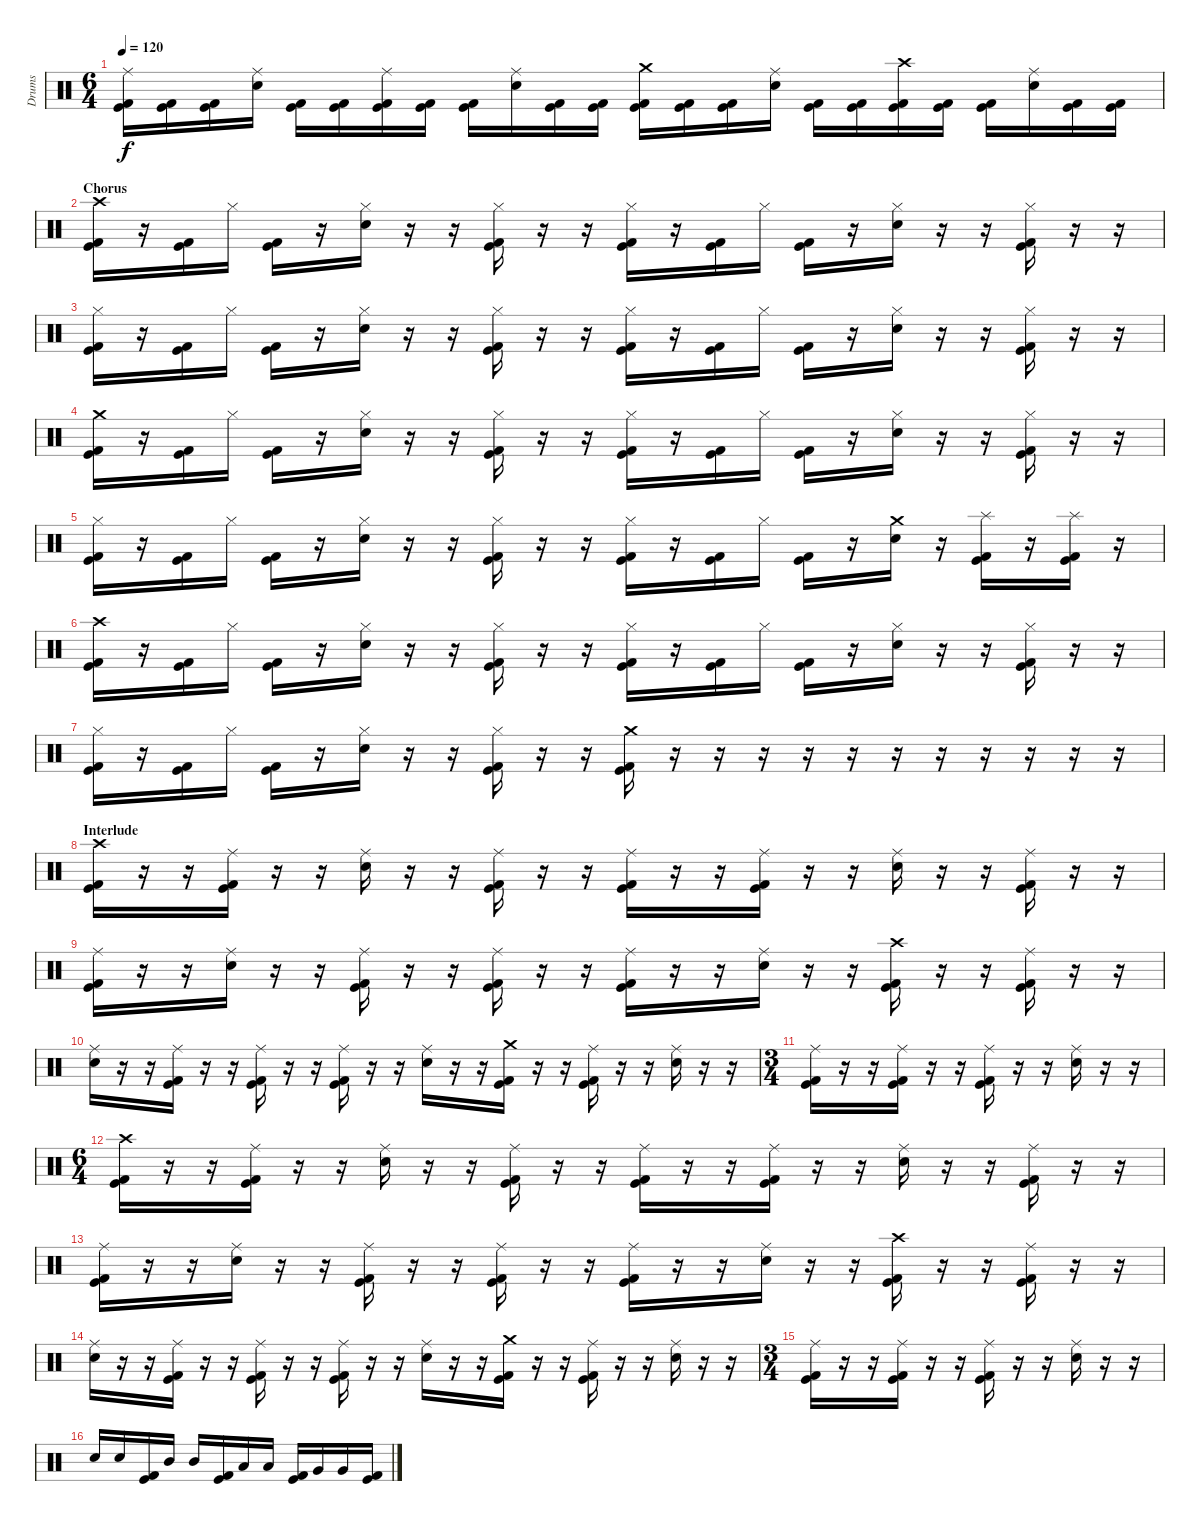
\track ("Drums" "Drums") {instrument percussion}
\staff {score}
\articulation defaults
\ts (6 4)
\tempo 120
\clef neutral
\ks c
("Ride (middle)" "Kick (hit) 2" "Kick (hit)").16{dy f} ("Kick (hit) 2" "Kick (hit)").16 ("Kick (hit) 2" "Kick (hit)").16 ("Ride (middle)" "Electric Snare (hit)").16 ("Kick (hit) 2" "Kick (hit)").16 ("Kick (hit) 2" "Kick (hit)").16 ("Ride (middle)" "Kick (hit) 2" "Kick (hit)").16 ("Kick (hit) 2" "Kick (hit)").16 ("Kick (hit) 2" "Kick (hit)").16 ("Ride (middle)" "Electric Snare (hit)").16 ("Kick (hit) 2" "Kick (hit)").16 ("Kick (hit) 2" "Kick (hit)").16 ("Crash medium (hit)" "Kick (hit) 2" "Kick (hit)").16 ("Kick (hit) 2" "Kick (hit)").16 ("Kick (hit) 2" "Kick (hit)").16 ("Ride (middle)" "Electric Snare (hit)").16 ("Kick (hit) 2" "Kick (hit)").16 ("Kick (hit) 2" "Kick (hit)").16 ("Crash high (hit)" "Kick (hit) 2" "Kick (hit)").16 ("Kick (hit) 2" "Kick (hit)").16 ("Kick (hit) 2" "Kick (hit)").16 ("Ride (middle)" "Electric Snare (hit)").16 ("Kick (hit) 2" "Kick (hit)").16 ("Kick (hit) 2" "Kick (hit)").16 |
\section ("" "Chorus")
("Crash high (hit)" "Kick (hit) 2" "Kick (hit)").16 r.16 ("Kick (hit) 2" "Kick (hit)").16 "Hi-Hat (closed)".16 ("Kick (hit) 2" "Kick (hit)").16 r.16 ("Hi-Hat (closed)" "Electric Snare (hit)").16 r.16 r.16 ("Hi-Hat (closed)" "Kick (hit) 2" "Kick (hit)").16 r.16 r.16 ("Hi-Hat (closed)" "Kick (hit) 2" "Kick (hit)").16 r.16 ("Kick (hit) 2" "Kick (hit)").16 "Hi-Hat (closed)".16 ("Kick (hit) 2" "Kick (hit)").16 r.16 ("Hi-Hat (closed)" "Electric Snare (hit)").16 r.16 r.16 ("Hi-Hat (closed)" "Kick (hit) 2" "Kick (hit)").16 r.16 r.16 |
("Hi-Hat (closed)" "Kick (hit) 2" "Kick (hit)").16 r.16 ("Kick (hit) 2" "Kick (hit)").16 "Hi-Hat (closed)".16 ("Kick (hit) 2" "Kick (hit)").16 r.16 ("Hi-Hat (closed)" "Electric Snare (hit)").16 r.16 r.16 ("Hi-Hat (closed)" "Kick (hit) 2" "Kick (hit)").16 r.16 r.16 ("Hi-Hat (closed)" "Kick (hit) 2" "Kick (hit)").16 r.16 ("Kick (hit) 2" "Kick (hit)").16 "Hi-Hat (closed)".16 ("Kick (hit) 2" "Kick (hit)").16 r.16 ("Hi-Hat (closed)" "Electric Snare (hit)").16 r.16 r.16 ("Hi-Hat (closed)" "Kick (hit) 2" "Kick (hit)").16 r.16 r.16 |
("Crash medium (hit)" "Kick (hit) 2" "Kick (hit)").16 r.16 ("Kick (hit) 2" "Kick (hit)").16 "Hi-Hat (closed)".16 ("Kick (hit) 2" "Kick (hit)").16 r.16 ("Hi-Hat (closed)" "Electric Snare (hit)").16 r.16 r.16 ("Hi-Hat (closed)" "Kick (hit) 2" "Kick (hit)").16 r.16 r.16 ("Hi-Hat (closed)" "Kick (hit) 2" "Kick (hit)").16 r.16 ("Kick (hit) 2" "Kick (hit)").16 "Hi-Hat (closed)".16 ("Kick (hit) 2" "Kick (hit)").16 r.16 ("Hi-Hat (closed)" "Electric Snare (hit)").16 r.16 r.16 ("Hi-Hat (closed)" "Kick (hit) 2" "Kick (hit)").16 r.16 r.16 |
("Hi-Hat (closed)" "Kick (hit) 2" "Kick (hit)").16 r.16 ("Kick (hit) 2" "Kick (hit)").16 "Hi-Hat (closed)".16 ("Kick (hit) 2" "Kick (hit)").16 r.16 ("Hi-Hat (closed)" "Electric Snare (hit)").16 r.16 r.16 ("Hi-Hat (closed)" "Kick (hit) 2" "Kick (hit)").16 r.16 r.16 ("Hi-Hat (closed)" "Kick (hit) 2" "Kick (hit)").16 r.16 ("Kick (hit) 2" "Kick (hit)").16 "Hi-Hat (closed)".16 ("Kick (hit) 2" "Kick (hit)").16 r.16 ("Crash medium (hit)" "Electric Snare (hit)").16 r.16 ("Splash (hit)" "Kick (hit) 2" "Kick (hit)").16 r.16 ("Splash (hit)" "Kick (hit) 2" "Kick (hit)").16 r.16 |
("Crash high (hit)" "Kick (hit) 2" "Kick (hit)").16 r.16 ("Kick (hit) 2" "Kick (hit)").16 "Hi-Hat (closed)".16 ("Kick (hit) 2" "Kick (hit)").16 r.16 ("Hi-Hat (closed)" "Electric Snare (hit)").16 r.16 r.16 ("Hi-Hat (closed)" "Kick (hit) 2" "Kick (hit)").16 r.16 r.16 ("Hi-Hat (closed)" "Kick (hit) 2" "Kick (hit)").16 r.16 ("Kick (hit) 2" "Kick (hit)").16 "Hi-Hat (closed)".16 ("Kick (hit) 2" "Kick (hit)").16 r.16 ("Hi-Hat (closed)" "Electric Snare (hit)").16 r.16 r.16 ("Hi-Hat (closed)" "Kick (hit) 2" "Kick (hit)").16 r.16 r.16 |
("Hi-Hat (closed)" "Kick (hit) 2" "Kick (hit)").16 r.16 ("Kick (hit) 2" "Kick (hit)").16 "Hi-Hat (closed)".16 ("Kick (hit) 2" "Kick (hit)").16 r.16 ("Hi-Hat (closed)" "Electric Snare (hit)").16 r.16 r.16 ("Hi-Hat (closed)" "Kick (hit) 2" "Kick (hit)").16 r.16 r.16 ("Crash medium (hit)" "Kick (hit) 2" "Kick (hit)").16 r.16 r.16 r.16 r.16 r.16 r.16 r.16 r.16 r.16 r.16 r.16 |
\section ("" "Interlude")
("Crash high (hit)" "Kick (hit)" "Kick (hit) 2").16 r.16 r.16 ("Ride (middle)" "Kick (hit)" "Kick (hit) 2").16 r.16 r.16 ("Ride (middle)" "Electric Snare (hit)").16 r.16 r.16 ("Ride (middle)" "Kick (hit)" "Kick (hit) 2").16 r.16 r.16 ("Ride (middle)" "Kick (hit)" "Kick (hit) 2").16 r.16 r.16 ("Ride (middle)" "Kick (hit)" "Kick (hit) 2").16 r.16 r.16 ("Ride (middle)" "Electric Snare (hit)").16 r.16 r.16 ("Ride (middle)" "Kick (hit)" "Kick (hit) 2").16 r.16 r.16 |
("Ride (middle)" "Kick (hit)" "Kick (hit) 2").16 r.16 r.16 ("Ride (middle)" "Electric Snare (hit)").16 r.16 r.16 ("Ride (middle)" "Kick (hit)" "Kick (hit) 2").16 r.16 r.16 ("Ride (middle)" "Kick (hit)" "Kick (hit) 2").16 r.16 r.16 ("Ride (middle)" "Kick (hit)" "Kick (hit) 2").16 r.16 r.16 ("Ride (middle)" "Electric Snare (hit)").16 r.16 r.16 ("Crash high (hit)" "Kick (hit)" "Kick (hit) 2").16 r.16 r.16 ("Ride (middle)" "Kick (hit)" "Kick (hit) 2").16 r.16 r.16 |
("Ride (middle)" "Electric Snare (hit)").16 r.16 r.16 ("Ride (middle)" "Kick (hit)" "Kick (hit) 2").16 r.16 r.16 ("Ride (middle)" "Kick (hit)" "Kick (hit) 2").16 r.16 r.16 ("Ride (middle)" "Kick (hit)" "Kick (hit) 2").16 r.16 r.16 ("Ride (middle)" "Electric Snare (hit)").16 r.16 r.16 ("Crash medium (hit)" "Kick (hit)" "Kick (hit) 2").16 r.16 r.16 ("Ride (middle)" "Kick (hit)" "Kick (hit) 2").16 r.16 r.16 ("Ride (middle)" "Electric Snare (hit)").16 r.16 r.16 |
\ts (3 4)
("Ride (middle)" "Kick (hit)" "Kick (hit) 2").16 r.16 r.16 ("Ride (middle)" "Kick (hit)" "Kick (hit) 2").16 r.16 r.16 ("Ride (middle)" "Kick (hit)" "Kick (hit) 2").16 r.16 r.16 ("Ride (middle)" "Electric Snare (hit)").16 r.16 r.16 |
\ts (6 4)
("Crash high (hit)" "Kick (hit)" "Kick (hit) 2").16 r.16 r.16 ("Ride (middle)" "Kick (hit)" "Kick (hit) 2").16 r.16 r.16 ("Ride (middle)" "Electric Snare (hit)").16 r.16 r.16 ("Ride (middle)" "Kick (hit)" "Kick (hit) 2").16 r.16 r.16 ("Ride (middle)" "Kick (hit)" "Kick (hit) 2").16 r.16 r.16 ("Ride (middle)" "Kick (hit)" "Kick (hit) 2").16 r.16 r.16 ("Ride (middle)" "Electric Snare (hit)").16 r.16 r.16 ("Ride (middle)" "Kick (hit)" "Kick (hit) 2").16 r.16 r.16 |
("Ride (middle)" "Kick (hit)" "Kick (hit) 2").16 r.16 r.16 ("Ride (middle)" "Electric Snare (hit)").16 r.16 r.16 ("Ride (middle)" "Kick (hit)" "Kick (hit) 2").16 r.16 r.16 ("Ride (middle)" "Kick (hit)" "Kick (hit) 2").16 r.16 r.16 ("Ride (middle)" "Kick (hit)" "Kick (hit) 2").16 r.16 r.16 ("Ride (middle)" "Electric Snare (hit)").16 r.16 r.16 ("Crash high (hit)" "Kick (hit)" "Kick (hit) 2").16 r.16 r.16 ("Ride (middle)" "Kick (hit)" "Kick (hit) 2").16 r.16 r.16 |
("Ride (middle)" "Electric Snare (hit)").16 r.16 r.16 ("Ride (middle)" "Kick (hit)" "Kick (hit) 2").16 r.16 r.16 ("Ride (middle)" "Kick (hit)" "Kick (hit) 2").16 r.16 r.16 ("Ride (middle)" "Kick (hit)" "Kick (hit) 2").16 r.16 r.16 ("Ride (middle)" "Electric Snare (hit)").16 r.16 r.16 ("Crash medium (hit)" "Kick (hit)" "Kick (hit) 2").16 r.16 r.16 ("Ride (middle)" "Kick (hit)" "Kick (hit) 2").16 r.16 r.16 ("Ride (middle)" "Electric Snare (hit)").16 r.16 r.16 |
\ts (3 4)
("Ride (middle)" "Kick (hit)" "Kick (hit) 2").16 r.16 r.16 ("Ride (middle)" "Kick (hit)" "Kick (hit) 2").16 r.16 r.16 ("Ride (middle)" "Kick (hit)" "Kick (hit) 2").16 r.16 r.16 ("Ride (middle)" "Electric Snare (hit)").16 r.16 r.16 |
"Electric Snare (hit)".16 "Electric Snare (hit)".16 ("Kick (hit) 2" "Kick (hit)").16 "Mid Tom (hit)".16 "Mid Tom (hit)".16 ("Kick (hit)" "Kick (hit) 2").16 "Low Tom (hit)".16 "Low Tom (hit)".16 ("Kick (hit)" "Kick (hit) 2").16 "Very Low Tom (hit)".16 "Very Low Tom (hit)".16 ("Kick (hit)" "Kick (hit) 2").16
